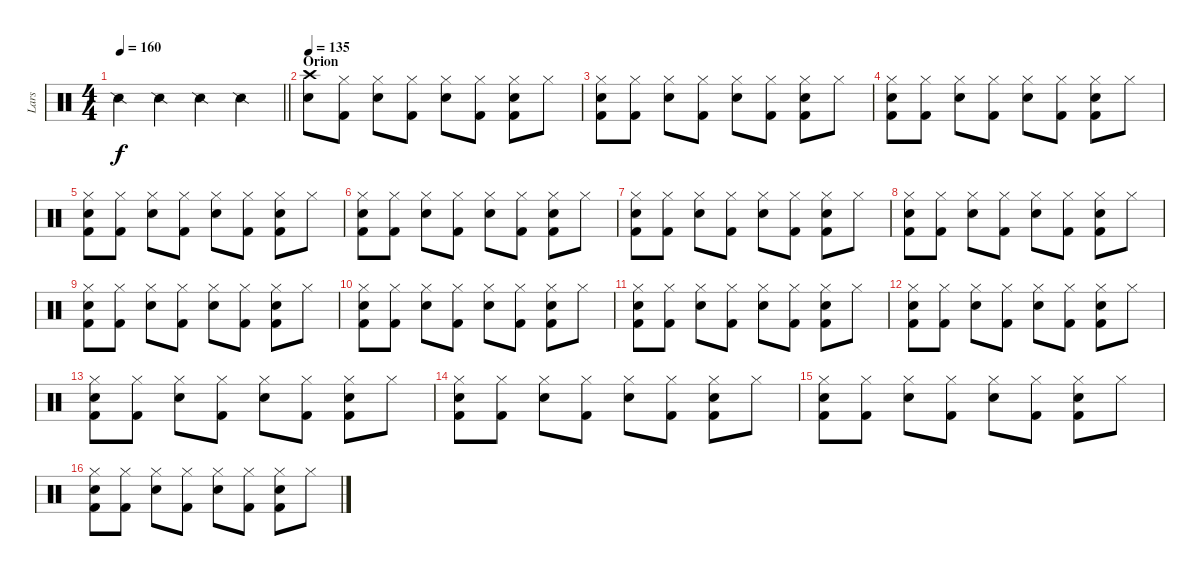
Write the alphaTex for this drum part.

\track ("Lars" "Lars") {instrument percussion}
\staff {score}
\articulation defaults
\ts (4 4)
\tempo 160
\clef neutral
\barLineRight lightlight
\ks c "Snare (side stick) 2".4{dy f} "Snare (side stick) 2".4 "Snare (side stick) 2".4 "Snare (side stick) 2".4
|
\section ("" "Orion")
\tempo 135
("Crash high (hit)" "Snare (hit) 2").8 ("Hi-Hat (closed)" "Kick (hit) 2").8 ("Hi-Hat (closed)" "Snare (hit) 2").8 ("Hi-Hat (closed)" "Kick (hit) 2").8 ("Hi-Hat (closed)" "Snare (hit) 2").8 ("Hi-Hat (closed)" "Kick (hit) 2").8 ("Hi-Hat (closed)" "Snare (hit) 2" "Kick (hit) 2").8 "Hi-Hat (closed)".8 |
("Hi-Hat (closed)" "Snare (hit) 2" "Kick (hit) 2").8 ("Hi-Hat (closed)" "Kick (hit) 2").8 ("Hi-Hat (closed)" "Snare (hit) 2").8 ("Hi-Hat (closed)" "Kick (hit) 2").8 ("Hi-Hat (closed)" "Snare (hit) 2").8 ("Hi-Hat (closed)" "Kick (hit) 2").8 ("Hi-Hat (closed)" "Snare (hit) 2" "Kick (hit) 2").8 "Hi-Hat (closed)".8 |
("Hi-Hat (closed)" "Snare (hit) 2" "Kick (hit) 2").8 ("Hi-Hat (closed)" "Kick (hit) 2").8 ("Hi-Hat (closed)" "Snare (hit) 2").8 ("Hi-Hat (closed)" "Kick (hit) 2").8 ("Hi-Hat (closed)" "Snare (hit) 2").8 ("Hi-Hat (closed)" "Kick (hit) 2").8 ("Hi-Hat (closed)" "Snare (hit) 2" "Kick (hit) 2").8 "Hi-Hat (closed)".8 |
("Hi-Hat (closed)" "Snare (hit) 2" "Kick (hit) 2").8 ("Hi-Hat (closed)" "Kick (hit) 2").8 ("Hi-Hat (closed)" "Snare (hit) 2").8 ("Hi-Hat (closed)" "Kick (hit) 2").8 ("Hi-Hat (closed)" "Snare (hit) 2").8 ("Hi-Hat (closed)" "Kick (hit) 2").8 ("Hi-Hat (closed)" "Snare (hit) 2" "Kick (hit) 2").8 "Hi-Hat (closed)".8 |
("Hi-Hat (closed)" "Snare (hit) 2" "Kick (hit) 2").8 ("Hi-Hat (closed)" "Kick (hit) 2").8 ("Hi-Hat (closed)" "Snare (hit) 2").8 ("Hi-Hat (closed)" "Kick (hit) 2").8 ("Hi-Hat (closed)" "Snare (hit) 2").8 ("Hi-Hat (closed)" "Kick (hit) 2").8 ("Hi-Hat (closed)" "Snare (hit) 2" "Kick (hit) 2").8 "Hi-Hat (closed)".8 |
("Hi-Hat (closed)" "Snare (hit) 2" "Kick (hit) 2").8 ("Hi-Hat (closed)" "Kick (hit) 2").8 ("Hi-Hat (closed)" "Snare (hit) 2").8 ("Hi-Hat (closed)" "Kick (hit) 2").8 ("Hi-Hat (closed)" "Snare (hit) 2").8 ("Hi-Hat (closed)" "Kick (hit) 2").8 ("Hi-Hat (closed)" "Snare (hit) 2" "Kick (hit) 2").8 "Hi-Hat (closed)".8 |
("Hi-Hat (closed)" "Snare (hit) 2" "Kick (hit) 2").8 ("Hi-Hat (closed)" "Kick (hit) 2").8 ("Hi-Hat (closed)" "Snare (hit) 2").8 ("Hi-Hat (closed)" "Kick (hit) 2").8 ("Hi-Hat (closed)" "Snare (hit) 2").8 ("Hi-Hat (closed)" "Kick (hit) 2").8 ("Hi-Hat (closed)" "Snare (hit) 2" "Kick (hit) 2").8 "Hi-Hat (closed)".8 |
("Hi-Hat (closed)" "Snare (hit) 2" "Kick (hit) 2").8 ("Hi-Hat (closed)" "Kick (hit) 2").8 ("Hi-Hat (closed)" "Snare (hit) 2").8 ("Hi-Hat (closed)" "Kick (hit) 2").8 ("Hi-Hat (closed)" "Snare (hit) 2").8 ("Hi-Hat (closed)" "Kick (hit) 2").8 ("Hi-Hat (closed)" "Snare (hit) 2" "Kick (hit) 2").8 "Hi-Hat (closed)".8 |
("Hi-Hat (closed)" "Snare (hit) 2" "Kick (hit) 2").8 ("Hi-Hat (closed)" "Kick (hit) 2").8 ("Hi-Hat (closed)" "Snare (hit) 2").8 ("Hi-Hat (closed)" "Kick (hit) 2").8 ("Hi-Hat (closed)" "Snare (hit) 2").8 ("Hi-Hat (closed)" "Kick (hit) 2").8 ("Hi-Hat (closed)" "Snare (hit) 2" "Kick (hit) 2").8 "Hi-Hat (closed)".8 |
("Hi-Hat (closed)" "Snare (hit) 2" "Kick (hit) 2").8 ("Hi-Hat (closed)" "Kick (hit) 2").8 ("Hi-Hat (closed)" "Snare (hit) 2").8 ("Hi-Hat (closed)" "Kick (hit) 2").8 ("Hi-Hat (closed)" "Snare (hit) 2").8 ("Hi-Hat (closed)" "Kick (hit) 2").8 ("Hi-Hat (closed)" "Snare (hit) 2" "Kick (hit) 2").8 "Hi-Hat (closed)".8 |
("Hi-Hat (closed)" "Snare (hit) 2" "Kick (hit) 2").8 ("Hi-Hat (closed)" "Kick (hit) 2").8 ("Hi-Hat (closed)" "Snare (hit) 2").8 ("Hi-Hat (closed)" "Kick (hit) 2").8 ("Hi-Hat (closed)" "Snare (hit) 2").8 ("Hi-Hat (closed)" "Kick (hit) 2").8 ("Hi-Hat (closed)" "Snare (hit) 2" "Kick (hit) 2").8 "Hi-Hat (closed)".8 |
("Hi-Hat (closed)" "Snare (hit) 2" "Kick (hit) 2").8 ("Hi-Hat (closed)" "Kick (hit) 2").8 ("Hi-Hat (closed)" "Snare (hit) 2").8 ("Hi-Hat (closed)" "Kick (hit) 2").8 ("Hi-Hat (closed)" "Snare (hit) 2").8 ("Hi-Hat (closed)" "Kick (hit) 2").8 ("Hi-Hat (closed)" "Snare (hit) 2" "Kick (hit) 2").8 "Hi-Hat (closed)".8 |
("Hi-Hat (closed)" "Snare (hit) 2" "Kick (hit) 2").8 ("Hi-Hat (closed)" "Kick (hit) 2").8 ("Hi-Hat (closed)" "Snare (hit) 2").8 ("Hi-Hat (closed)" "Kick (hit) 2").8 ("Hi-Hat (closed)" "Snare (hit) 2").8 ("Hi-Hat (closed)" "Kick (hit) 2").8 ("Hi-Hat (closed)" "Snare (hit) 2" "Kick (hit) 2").8 "Hi-Hat (closed)".8 |
("Hi-Hat (closed)" "Snare (hit) 2" "Kick (hit) 2").8 ("Hi-Hat (closed)" "Kick (hit) 2").8 ("Hi-Hat (closed)" "Snare (hit) 2").8 ("Hi-Hat (closed)" "Kick (hit) 2").8 ("Hi-Hat (closed)" "Snare (hit) 2").8 ("Hi-Hat (closed)" "Kick (hit) 2").8 ("Hi-Hat (closed)" "Snare (hit) 2" "Kick (hit) 2").8 "Hi-Hat (closed)".8 |
("Hi-Hat (closed)" "Snare (hit) 2" "Kick (hit) 2").8 ("Hi-Hat (closed)" "Kick (hit) 2").8 ("Hi-Hat (closed)" "Snare (hit) 2").8 ("Hi-Hat (closed)" "Kick (hit) 2").8 ("Hi-Hat (closed)" "Snare (hit) 2").8 ("Hi-Hat (closed)" "Kick (hit) 2").8 ("Hi-Hat (closed)" "Snare (hit) 2" "Kick (hit) 2").8 "Hi-Hat (closed)".8
